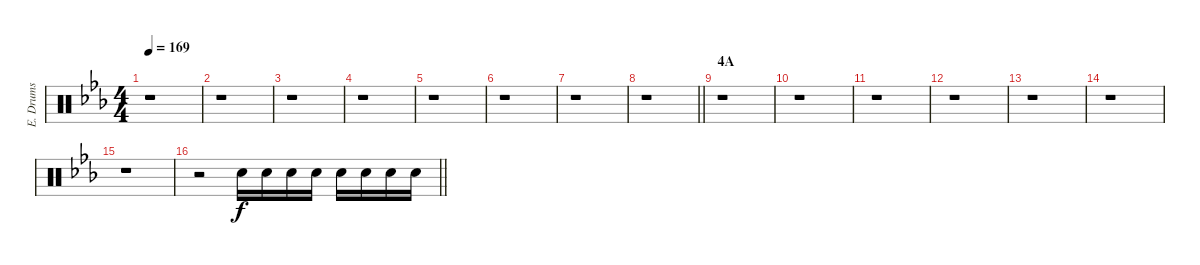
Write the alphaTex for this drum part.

\track ("E. Drums" "E. Drums") {instrument percussion}
\staff {score}
\articulation defaults
\ts (4 4)
\tempo 169
\clef neutral
\ks eb
r.1{dy mp} |
r.1 |
r.1 |
r.1 |
r.1 |
r.1 |
r.1 |
\barLineRight lightlight
r.1 |
\section ("" "4A")
r.1 |
r.1 |
r.1 |
r.1 |
r.1 |
r.1 |
r.1 |
\barLineRight lightlight
r.2 "Electric Snare (hit)".16{dy f} "Electric Snare (hit)".16 "Electric Snare (hit)".16 "Electric Snare (hit)".16 "Electric Snare (hit)".16 "Electric Snare (hit)".16 "Electric Snare (hit)".16 "Electric Snare (hit)".16
